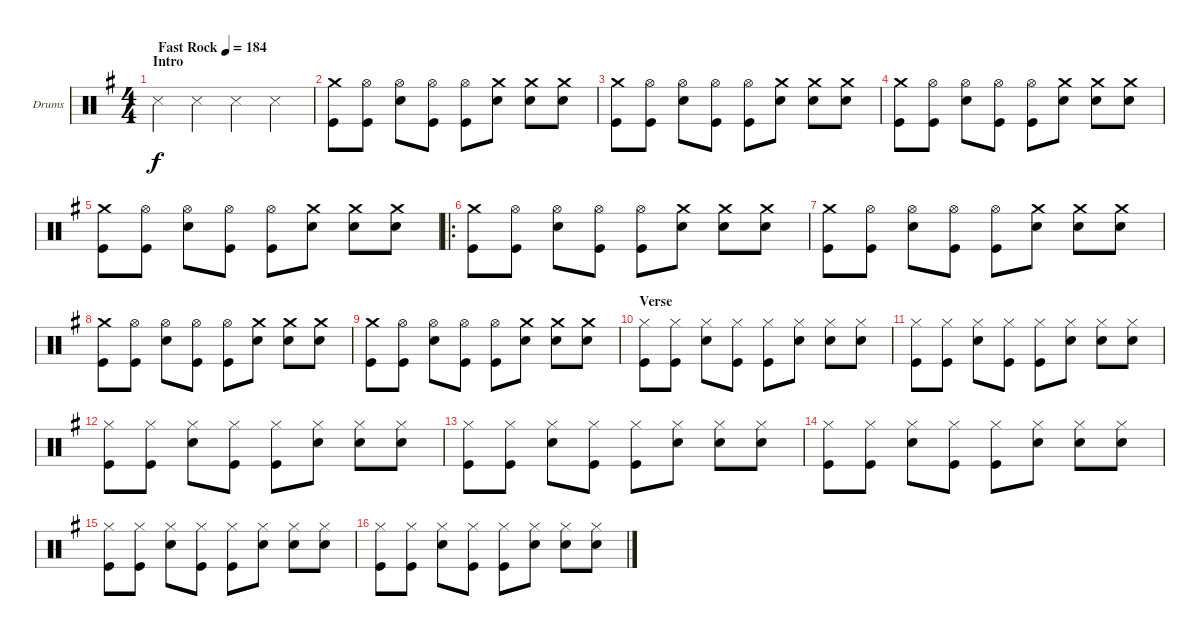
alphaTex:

\defaultSystemsLayout 4
\bracketExtendMode groupsimilarinstruments
\firstSystemTrackNameOrientation horizontal
\otherSystemsTrackNameOrientation horizontal
\track ("Drumkit" "Drums") {instrument percussion}
\staff {score}
\articulation defaults
\ts (4 4)
\section ("" "Intro")
\tempo (184 "Fast Rock")
\clef neutral
\ks g "Snare (side stick) 3".4{dy f} "Snare (side stick) 3".4 "Snare (side stick) 3".4 "Snare (side stick) 3".4
|
("Crash medium (hit)" "Kick (hit)").8 ("Hi-Hat (open)" "Kick (hit)").8 ("Hi-Hat (open)" "Snare (hit) 2").8 ("Hi-Hat (open)" "Kick (hit)").8 ("Hi-Hat (open)" "Kick (hit)").8 ("Crash medium (hit)" "Snare (hit) 2").8 ("Crash medium (hit)" "Snare (hit) 2").8 ("Crash medium (hit)" "Snare (hit) 2").8 |
("Crash medium (hit)" "Kick (hit)").8 ("Hi-Hat (open)" "Kick (hit)").8 ("Hi-Hat (open)" "Snare (hit) 2").8 ("Hi-Hat (open)" "Kick (hit)").8 ("Hi-Hat (open)" "Kick (hit)").8 ("Crash medium (hit)" "Snare (hit) 2").8 ("Crash medium (hit)" "Snare (hit) 2").8 ("Crash medium (hit)" "Snare (hit) 2").8 |
("Crash medium (hit)" "Kick (hit)").8 ("Hi-Hat (open)" "Kick (hit)").8 ("Hi-Hat (open)" "Snare (hit) 2").8 ("Hi-Hat (open)" "Kick (hit)").8 ("Hi-Hat (open)" "Kick (hit)").8 ("Crash medium (hit)" "Snare (hit) 2").8 ("Crash medium (hit)" "Snare (hit) 2").8 ("Crash medium (hit)" "Snare (hit) 2").8 |
("Crash medium (hit)" "Kick (hit)").8 ("Hi-Hat (open)" "Kick (hit)").8 ("Hi-Hat (open)" "Snare (hit) 2").8 ("Hi-Hat (open)" "Kick (hit)").8 ("Hi-Hat (open)" "Kick (hit)").8 ("Crash medium (hit)" "Snare (hit) 2").8 ("Crash medium (hit)" "Snare (hit) 2").8 ("Crash medium (hit)" "Snare (hit) 2").8 |
\ro
("Crash medium (hit)" "Kick (hit)").8 ("Hi-Hat (open)" "Kick (hit)").8 ("Hi-Hat (open)" "Snare (hit) 2").8 ("Hi-Hat (open)" "Kick (hit)").8 ("Hi-Hat (open)" "Kick (hit)").8 ("Crash medium (hit)" "Snare (hit) 2").8 ("Crash medium (hit)" "Snare (hit) 2").8 ("Crash medium (hit)" "Snare (hit) 2").8 |
("Crash medium (hit)" "Kick (hit)").8 ("Hi-Hat (open)" "Kick (hit)").8 ("Hi-Hat (open)" "Snare (hit) 2").8 ("Hi-Hat (open)" "Kick (hit)").8 ("Hi-Hat (open)" "Kick (hit)").8 ("Crash medium (hit)" "Snare (hit) 2").8 ("Crash medium (hit)" "Snare (hit) 2").8 ("Crash medium (hit)" "Snare (hit) 2").8 |
("Crash medium (hit)" "Kick (hit)").8 ("Hi-Hat (open)" "Kick (hit)").8 ("Hi-Hat (open)" "Snare (hit) 2").8 ("Hi-Hat (open)" "Kick (hit)").8 ("Hi-Hat (open)" "Kick (hit)").8 ("Crash medium (hit)" "Snare (hit) 2").8 ("Crash medium (hit)" "Snare (hit) 2").8 ("Crash medium (hit)" "Snare (hit) 2").8 |
("Crash medium (hit)" "Kick (hit)").8 ("Hi-Hat (open)" "Kick (hit)").8 ("Hi-Hat (open)" "Snare (hit) 2").8 ("Hi-Hat (open)" "Kick (hit)").8 ("Hi-Hat (open)" "Kick (hit)").8 ("Crash medium (hit)" "Snare (hit) 2").8 ("Crash medium (hit)" "Snare (hit) 2").8 ("Crash medium (hit)" "Snare (hit) 2").8 |
\section ("" "Verse")
("Hi-Hat (closed)" "Kick (hit)").8 ("Hi-Hat (closed)" "Kick (hit)").8 ("Hi-Hat (closed)" "Snare (hit) 2").8 ("Hi-Hat (closed)" "Kick (hit)").8 ("Hi-Hat (closed)" "Kick (hit)").8 ("Hi-Hat (closed)" "Snare (hit) 2").8 ("Hi-Hat (closed)" "Snare (hit) 2").8 ("Hi-Hat (closed)" "Snare (hit) 2").8 |
("Hi-Hat (closed)" "Kick (hit)").8 ("Hi-Hat (closed)" "Kick (hit)").8 ("Hi-Hat (closed)" "Snare (hit) 2").8 ("Hi-Hat (closed)" "Kick (hit)").8 ("Hi-Hat (closed)" "Kick (hit)").8 ("Hi-Hat (closed)" "Snare (hit) 2").8 ("Hi-Hat (closed)" "Snare (hit) 2").8 ("Hi-Hat (closed)" "Snare (hit) 2").8 |
("Hi-Hat (closed)" "Kick (hit)").8 ("Hi-Hat (closed)" "Kick (hit)").8 ("Hi-Hat (closed)" "Snare (hit) 2").8 ("Hi-Hat (closed)" "Kick (hit)").8 ("Hi-Hat (closed)" "Kick (hit)").8 ("Hi-Hat (closed)" "Snare (hit) 2").8 ("Hi-Hat (closed)" "Snare (hit) 2").8 ("Hi-Hat (closed)" "Snare (hit) 2").8 |
("Hi-Hat (closed)" "Kick (hit)").8 ("Hi-Hat (closed)" "Kick (hit)").8 ("Hi-Hat (closed)" "Snare (hit) 2").8 ("Hi-Hat (closed)" "Kick (hit)").8 ("Hi-Hat (closed)" "Kick (hit)").8 ("Hi-Hat (closed)" "Snare (hit) 2").8 ("Hi-Hat (closed)" "Snare (hit) 2").8 ("Hi-Hat (closed)" "Snare (hit) 2").8 |
("Hi-Hat (closed)" "Kick (hit)").8 ("Hi-Hat (closed)" "Kick (hit)").8 ("Hi-Hat (closed)" "Snare (hit) 2").8 ("Hi-Hat (closed)" "Kick (hit)").8 ("Hi-Hat (closed)" "Kick (hit)").8 ("Hi-Hat (closed)" "Snare (hit) 2").8 ("Hi-Hat (closed)" "Snare (hit) 2").8 ("Hi-Hat (closed)" "Snare (hit) 2").8 |
("Hi-Hat (closed)" "Kick (hit)").8 ("Hi-Hat (closed)" "Kick (hit)").8 ("Hi-Hat (closed)" "Snare (hit) 2").8 ("Hi-Hat (closed)" "Kick (hit)").8 ("Hi-Hat (closed)" "Kick (hit)").8 ("Hi-Hat (closed)" "Snare (hit) 2").8 ("Hi-Hat (closed)" "Snare (hit) 2").8 ("Hi-Hat (closed)" "Snare (hit) 2").8 |
("Hi-Hat (closed)" "Kick (hit)").8 ("Hi-Hat (closed)" "Kick (hit)").8 ("Hi-Hat (closed)" "Snare (hit) 2").8 ("Hi-Hat (closed)" "Kick (hit)").8 ("Hi-Hat (closed)" "Kick (hit)").8 ("Hi-Hat (closed)" "Snare (hit) 2").8 ("Hi-Hat (closed)" "Snare (hit) 2").8 ("Hi-Hat (closed)" "Snare (hit) 2").8
